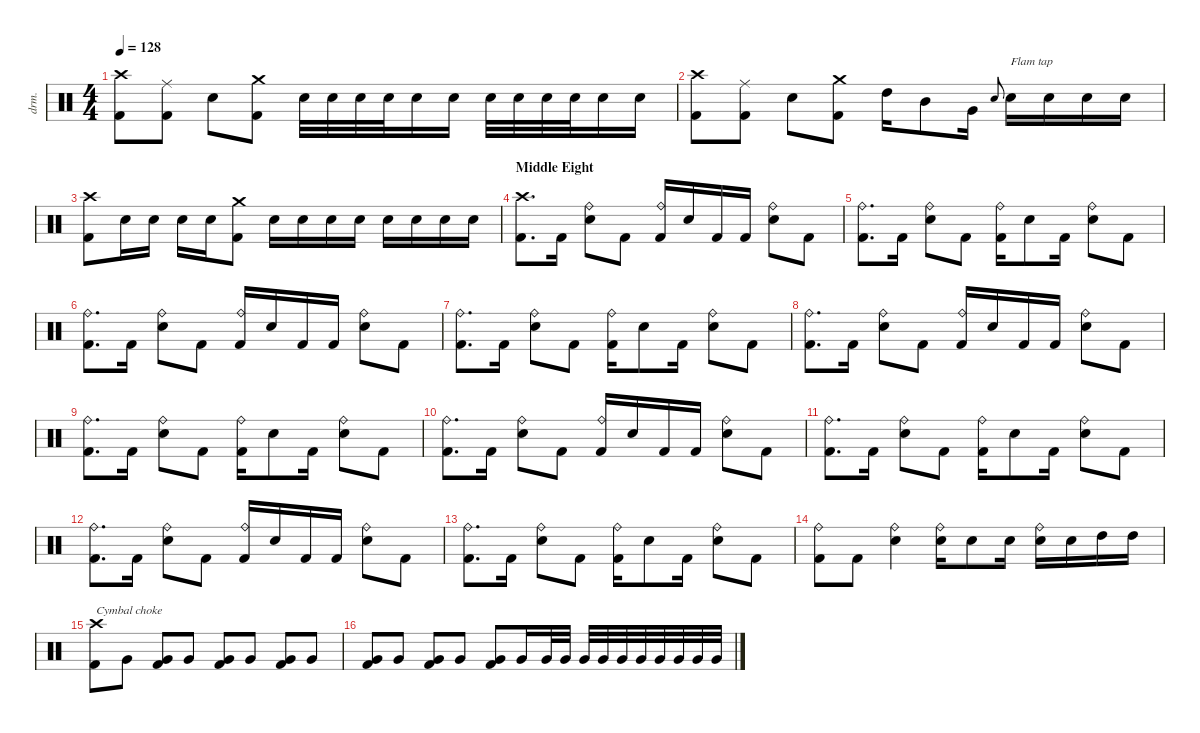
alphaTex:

\defaultSystemsLayout 4
\hideDynamics
\bracketExtendMode nobrackets
\otherSystemsTrackNameOrientation horizontal
\track ("Jimmy Chamberlin" "drm.") {instrument percussion}
\staff {score}
\articulation defaults
\ts (4 4)
\tempo 128
\clef neutral
\ks c
("Crash high (hit)" "Kick (hit) 2").8{dy mf beam Down} ("Ride (middle)" "Kick (hit) 2").8{beam Down} "Snare (hit) 2".8{beam Down} ("Kick (hit) 2" "Crash medium (hit)").8{beam Down} "Snare (hit) 2".32{beam Down} "Snare (hit) 2".32{beam Down} "Snare (hit) 2".32{beam Down} "Snare (hit) 2".32{beam Down} "Snare (hit) 2".16{beam Down} "Snare (hit) 2".16{beam Down} "Snare (hit) 2".32{beam Down} "Snare (hit) 2".32{beam Down} "Snare (hit) 2".32{beam Down} "Snare (hit) 2".32{beam Down} "Snare (hit) 2".16{beam Down} "Snare (hit) 2".16{beam Down} |
("Kick (hit) 2" "Crash high (hit)").8{beam Down} ("Kick (hit) 2" "Ride (middle)").8{beam Down} "Snare (hit) 2".8{beam Down} ("Kick (hit) 2" "Crash medium (hit)").8{beam Down} "High Tom (hit)".16{beam Down} "Mid Tom (hit)".8{beam Down} "Very Low Tom (hit)".16{beam Down} "Snare (hit) 2".8{gr onbeat beam Up} "Snare (hit) 2".16{txt "Flam tap" beam Down} "Snare (hit) 2".16{beam Down} "Snare (hit) 2".16{beam Down} "Snare (hit) 2".16{beam Down} |
("Crash high (hit)" "Kick (hit) 2").8{beam Down} "Snare (hit) 2".16{beam Down} "Snare (hit) 2".16{beam Down} "Snare (hit) 2".16{beam Down} "Snare (hit) 2".16{beam Down} ("Kick (hit) 2" "Crash medium (hit)").8{beam Down} "Snare (hit) 2".16{beam Down} "Snare (hit) 2".16{beam Down} "Snare (hit) 2".16{beam Down} "Snare (hit) 2".16{beam Down} "Snare (hit) 2".16{beam Down} "Snare (hit) 2".16{beam Down} "Snare (hit) 2".16{beam Down} "Snare (hit) 2".16{beam Down} |
\section ("" "Middle Eight")
("Kick (hit) 2" "Crash high (hit)").8{d beam Down} "Kick (hit) 2".16{beam Down} ("Ride (bell)" "Snare (hit) 2").8{beam Down} "Kick (hit) 2".8{beam Down} ("Kick (hit) 2" "Ride (bell)").16{beam Up} "Snare (hit) 2".16{beam Up} "Kick (hit) 2".16{beam Up} "Kick (hit) 2".16{beam Up} ("Ride (bell)" "Snare (hit) 2").8{beam Down} "Kick (hit) 2".8{beam Down} |
("Ride (bell)" "Kick (hit) 2").8{d beam Down} "Kick (hit) 2".16{beam Down} ("Ride (bell)" "Snare (hit) 2").8{beam Down} "Kick (hit) 2".8{beam Down} ("Ride (bell)" "Kick (hit) 2").16{beam Down} "Snare (hit) 2".8{beam Down} "Kick (hit) 2".16{beam Down} ("Ride (bell)" "Snare (hit) 2").8{beam Down} "Kick (hit) 2".8{beam Down} |
("Kick (hit) 2" "Ride (bell)").8{d beam Down} "Kick (hit) 2".16{beam Down} ("Ride (bell)" "Snare (hit) 2").8{beam Down} "Kick (hit) 2".8{beam Down} ("Kick (hit) 2" "Ride (bell)").16{beam Up} "Snare (hit) 2".16{beam Up} "Kick (hit) 2".16{beam Up} "Kick (hit) 2".16{beam Up} ("Ride (bell)" "Snare (hit) 2").8{beam Down} "Kick (hit) 2".8{beam Down} |
("Ride (bell)" "Kick (hit) 2").8{d beam Down} "Kick (hit) 2".16{beam Down} ("Ride (bell)" "Snare (hit) 2").8{beam Down} "Kick (hit) 2".8{beam Down} ("Ride (bell)" "Kick (hit) 2").16{beam Down} "Snare (hit) 2".8{beam Down} "Kick (hit) 2".16{beam Down} ("Ride (bell)" "Snare (hit) 2").8{beam Down} "Kick (hit) 2".8{beam Down} |
("Kick (hit) 2" "Ride (bell)").8{d beam Down} "Kick (hit) 2".16{beam Down} ("Ride (bell)" "Snare (hit) 2").8{beam Down} "Kick (hit) 2".8{beam Down} ("Kick (hit) 2" "Ride (bell)").16{beam Up} "Snare (hit) 2".16{beam Up} "Kick (hit) 2".16{beam Up} "Kick (hit) 2".16{beam Up} ("Ride (bell)" "Snare (hit) 2").8{beam Down} "Kick (hit) 2".8{beam Down} |
("Ride (bell)" "Kick (hit) 2").8{d beam Down} "Kick (hit) 2".16{beam Down} ("Ride (bell)" "Snare (hit) 2").8{beam Down} "Kick (hit) 2".8{beam Down} ("Ride (bell)" "Kick (hit) 2").16{beam Down} "Snare (hit) 2".8{beam Down} "Kick (hit) 2".16{beam Down} ("Ride (bell)" "Snare (hit) 2").8{beam Down} "Kick (hit) 2".8{beam Down} |
("Kick (hit) 2" "Ride (bell)").8{d beam Down} "Kick (hit) 2".16{beam Down} ("Ride (bell)" "Snare (hit) 2").8{beam Down} "Kick (hit) 2".8{beam Down} ("Kick (hit) 2" "Ride (bell)").16{beam Up} "Snare (hit) 2".16{beam Up} "Kick (hit) 2".16{beam Up} "Kick (hit) 2".16{beam Up} ("Ride (bell)" "Snare (hit) 2").8{beam Down} "Kick (hit) 2".8{beam Down} |
("Ride (bell)" "Kick (hit) 2").8{d beam Down} "Kick (hit) 2".16{beam Down} ("Ride (bell)" "Snare (hit) 2").8{beam Down} "Kick (hit) 2".8{beam Down} ("Ride (bell)" "Kick (hit) 2").16{beam Down} "Snare (hit) 2".8{beam Down} "Kick (hit) 2".16{beam Down} ("Ride (bell)" "Snare (hit) 2").8{beam Down} "Kick (hit) 2".8{beam Down} |
("Kick (hit) 2" "Ride (bell)").8{d beam Down} "Kick (hit) 2".16{beam Down} ("Ride (bell)" "Snare (hit) 2").8{beam Down} "Kick (hit) 2".8{beam Down} ("Kick (hit) 2" "Ride (bell)").16{beam Up} "Snare (hit) 2".16{beam Up} "Kick (hit) 2".16{beam Up} "Kick (hit) 2".16{beam Up} ("Ride (bell)" "Snare (hit) 2").8{beam Down} "Kick (hit) 2".8{beam Down} |
("Ride (bell)" "Kick (hit) 2").8{d beam Down} "Kick (hit) 2".16{beam Down} ("Ride (bell)" "Snare (hit) 2").8{beam Down} "Kick (hit) 2".8{beam Down} ("Ride (bell)" "Kick (hit) 2").16{beam Down} "Snare (hit) 2".8{beam Down} "Kick (hit) 2".16{beam Down} ("Ride (bell)" "Snare (hit) 2").8{beam Down} "Kick (hit) 2".8{beam Down} |
("Kick (hit) 2" "Ride (bell)").8{beam Down} "Kick (hit) 2".8{beam Down} ("Ride (bell)" "Snare (hit) 2").4{beam Down} ("Snare (hit) 2" "Ride (bell)").16{beam Down} "Snare (hit) 2".8{beam Down} "Snare (hit) 2".16{beam Down} ("Ride (bell)" "Snare (hit) 2").16{beam Down} "Snare (hit) 2".16{beam Down} "High Tom (hit)".16{beam Down} "High Tom (hit)".16{beam Down} |
("Kick (hit) 2" "Crash high (hit)").8{txt "Cymbal choke" beam Down} "Very Low Tom (hit)".8{beam Down} ("Very Low Tom (hit)" "Kick (hit) 2").8{beam Up} "Very Low Tom (hit)".8{beam Up} ("Very Low Tom (hit)" "Kick (hit) 2").8{beam Up} "Very Low Tom (hit)".8{beam Up} ("Very Low Tom (hit)" "Kick (hit) 2").8{beam Up} "Very Low Tom (hit)".8{beam Up} |
("Very Low Tom (hit)" "Kick (hit) 2").8{beam Up} "Very Low Tom (hit)".8{beam Up} ("Very Low Tom (hit)" "Kick (hit) 2").8{beam Up} "Very Low Tom (hit)".8{beam Up} ("Very Low Tom (hit)" "Kick (hit) 2").8{beam Up} "Very Low Tom (hit)".16{beam Up} "Very Low Tom (hit)".32{beam Up} "Very Low Tom (hit)".32{beam Up} "Very Low Tom (hit)".32{beam Up} "Very Low Tom (hit)".32{beam Up} "Very Low Tom (hit)".32{beam Up} "Very Low Tom (hit)".32{beam Up} "Very Low Tom (hit)".32{beam Up} "Very Low Tom (hit)".32{beam Up} "Very Low Tom (hit)".32{beam Up} "Very Low Tom (hit)".32{beam Up}
